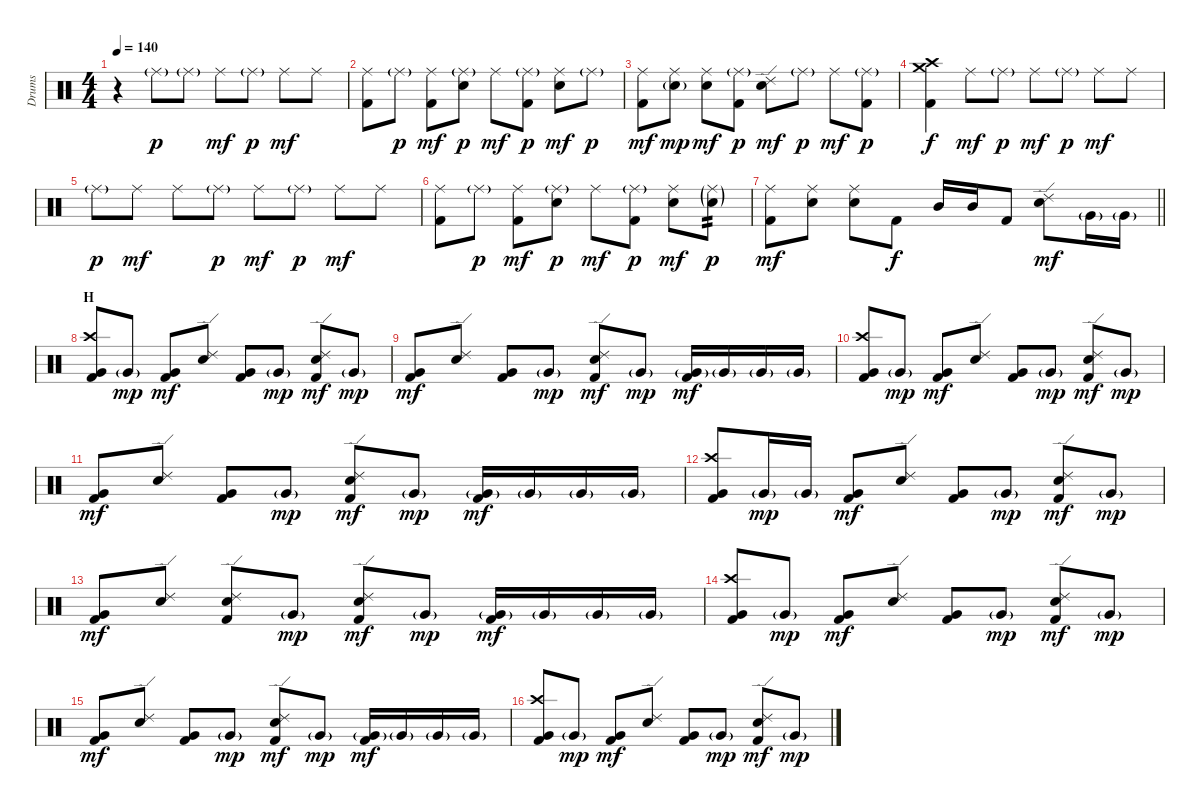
\track ("Drums" "Drums") {instrument percussion}
\staff {score}
\articulation defaults
\ts (4 4)
\tempo 140
\clef neutral
\ks c
r.4{dy f} "Ride (middle)"{g}.8{dy p} "Ride (middle)"{g}.8 "Ride (middle)".8{dy mf} "Ride (middle)"{g}.8{dy p} "Ride (middle)".8{dy mf} "Ride (middle)".8 |
("Ride (middle)" "Kick (hit) 2").8 "Ride (middle)"{g}.8{dy p} ("Ride (middle)" "Kick (hit) 2").8{dy mf} ("Ride (middle)"{g} "Snare (hit) 2").8{dy p} "Ride (middle)".8{dy mf} ("Ride (middle)"{g} "Kick (hit) 2").8{dy p} ("Ride (middle)" "Snare (hit) 2").8{dy mf} "Ride (middle)"{g}.8{dy p} |
("Ride (middle)" "Kick (hit) 2").8{dy mf} ("Ride (middle)" "Snare (hit) 2"{g}).8{dy mp} ("Ride (middle)" "Snare (hit) 2").8{dy mf} ("Ride (middle)"{g} "Kick (hit) 2").8{dy p} ("Ride (edge) 2" "Snare (hit) 2").8{dy mf} "Ride (middle)"{g}.8{dy p} "Ride (middle)".8{dy mf} ("Ride (middle)"{g} "Kick (hit) 2").8{dy p} |
("Crash high (hit)" "Crash medium (hit)" "Kick (hit) 2").4{dy f} "Ride (middle)".8{dy mf} "Ride (middle)"{g}.8{dy p} "Ride (middle)".8{dy mf} "Ride (middle)"{g}.8{dy p} "Ride (middle)".8{dy mf} "Ride (middle)".8 |
"Ride (middle)"{g}.8{dy p} "Ride (middle)".8{dy mf} "Ride (middle)".8 "Ride (middle)"{g}.8{dy p} "Ride (middle)".8{dy mf} "Ride (middle)"{g}.8{dy p} "Ride (middle)".8{dy mf} "Ride (middle)".8 |
("Ride (middle)" "Kick (hit) 2").8 "Ride (middle)"{g}.8{dy p} ("Ride (middle)" "Kick (hit) 2").8{dy mf} ("Ride (middle)"{g} "Snare (hit) 2").8{dy p} "Ride (middle)".8{dy mf} ("Ride (middle)"{g} "Kick (hit) 2").8{dy p} ("Ride (middle)" "Snare (hit) 2").8{dy mf} ("Ride (middle)"{g} "Snare (hit) 2"{g}).8{tp 2 dy p} |
\barLineRight lightlight
("Ride (middle)" "Kick (hit) 2").8{dy mf} ("Ride (middle)" "Snare (hit) 2").8 ("Ride (middle)" "Snare (hit) 2").8 "Kick (hit) 2".8{dy f} "Mid Tom (hit)".16 "Mid Tom (hit)".16 "Kick (hit) 2".8 ("Ride (edge) 2" "Snare (hit) 2").8{dy mf} "Very Low Tom (hit)"{g}.16 "Very Low Tom (hit)"{g}.16 |
\section ("" "H")
("Crash high (hit)" "Very Low Tom (hit)" "Kick (hit) 2").8 "Very Low Tom (hit)"{g}.8{dy mp} ("Very Low Tom (hit)" "Kick (hit) 2").8{dy mf} ("Ride (edge) 2" "Snare (hit) 2").8 ("Very Low Tom (hit)" "Kick (hit) 2").8 "Very Low Tom (hit)"{g}.8{dy mp} ("Ride (edge) 2" "Snare (hit) 2" "Kick (hit) 2").8{dy mf} "Very Low Tom (hit)"{g}.8{dy mp} |
("Very Low Tom (hit)" "Kick (hit) 2").8{dy mf} ("Ride (edge) 2" "Snare (hit) 2").8 ("Very Low Tom (hit)" "Kick (hit) 2").8 "Very Low Tom (hit)"{g}.8{dy mp} ("Ride (edge) 2" "Snare (hit) 2" "Kick (hit) 2").8{dy mf} "Very Low Tom (hit)"{g}.8{dy mp} ("Very Low Tom (hit)"{g} "Kick (hit) 2").16{dy mf} "Very Low Tom (hit)"{g}.16 "Very Low Tom (hit)"{g}.16 "Very Low Tom (hit)"{g}.16 |
("Crash high (hit)" "Very Low Tom (hit)" "Kick (hit) 2").8 "Very Low Tom (hit)"{g}.8{dy mp} ("Very Low Tom (hit)" "Kick (hit) 2").8{dy mf} ("Ride (edge) 2" "Snare (hit) 2").8 ("Very Low Tom (hit)" "Kick (hit) 2").8 "Very Low Tom (hit)"{g}.8{dy mp} ("Ride (edge) 2" "Snare (hit) 2" "Kick (hit) 2").8{dy mf} "Very Low Tom (hit)"{g}.8{dy mp} |
("Very Low Tom (hit)" "Kick (hit) 2").8{dy mf} ("Ride (edge) 2" "Snare (hit) 2").8 ("Very Low Tom (hit)" "Kick (hit) 2").8 "Very Low Tom (hit)"{g}.8{dy mp} ("Ride (edge) 2" "Snare (hit) 2" "Kick (hit) 2").8{dy mf} "Very Low Tom (hit)"{g}.8{dy mp} ("Very Low Tom (hit)"{g} "Kick (hit) 2").16{dy mf} "Very Low Tom (hit)"{g}.16 "Very Low Tom (hit)"{g}.16 "Very Low Tom (hit)"{g}.16 |
("Crash high (hit)" "Very Low Tom (hit)" "Kick (hit) 2").8 "Very Low Tom (hit)"{g}.16{dy mp} "Very Low Tom (hit)"{g}.16 ("Very Low Tom (hit)" "Kick (hit) 2").8{dy mf} ("Ride (edge) 2" "Snare (hit) 2").8 ("Very Low Tom (hit)" "Kick (hit) 2").8 "Very Low Tom (hit)"{g}.8{dy mp} ("Ride (edge) 2" "Snare (hit) 2" "Kick (hit) 2").8{dy mf} "Very Low Tom (hit)"{g}.8{dy mp} |
("Very Low Tom (hit)" "Kick (hit) 2").8{dy mf} ("Ride (edge) 2" "Snare (hit) 2").8 ("Ride (edge) 2" "Snare (hit) 2" "Kick (hit) 2").8 "Very Low Tom (hit)"{g}.8{dy mp} ("Ride (edge) 2" "Snare (hit) 2" "Kick (hit) 2").8{dy mf} "Very Low Tom (hit)"{g}.8{dy mp} ("Very Low Tom (hit)"{g} "Kick (hit) 2").16{dy mf} "Very Low Tom (hit)"{g}.16 "Very Low Tom (hit)"{g}.16 "Very Low Tom (hit)"{g}.16 |
("Crash high (hit)" "Very Low Tom (hit)" "Kick (hit) 2").8 "Very Low Tom (hit)"{g}.8{dy mp} ("Very Low Tom (hit)" "Kick (hit) 2").8{dy mf} ("Ride (edge) 2" "Snare (hit) 2").8 ("Very Low Tom (hit)" "Kick (hit) 2").8 "Very Low Tom (hit)"{g}.8{dy mp} ("Ride (edge) 2" "Snare (hit) 2" "Kick (hit) 2").8{dy mf} "Very Low Tom (hit)"{g}.8{dy mp} |
("Very Low Tom (hit)" "Kick (hit) 2").8{dy mf} ("Ride (edge) 2" "Snare (hit) 2").8 ("Very Low Tom (hit)" "Kick (hit) 2").8 "Very Low Tom (hit)"{g}.8{dy mp} ("Ride (edge) 2" "Snare (hit) 2" "Kick (hit) 2").8{dy mf} "Very Low Tom (hit)"{g}.8{dy mp} ("Very Low Tom (hit)"{g} "Kick (hit) 2").16{dy mf} "Very Low Tom (hit)"{g}.16 "Very Low Tom (hit)"{g}.16 "Very Low Tom (hit)"{g}.16 |
("Crash high (hit)" "Very Low Tom (hit)" "Kick (hit) 2").8 "Very Low Tom (hit)"{g}.8{dy mp} ("Very Low Tom (hit)" "Kick (hit) 2").8{dy mf} ("Ride (edge) 2" "Snare (hit) 2").8 ("Very Low Tom (hit)" "Kick (hit) 2").8 "Very Low Tom (hit)"{g}.8{dy mp} ("Ride (edge) 2" "Snare (hit) 2" "Kick (hit) 2").8{dy mf} "Very Low Tom (hit)"{g}.8{dy mp}
